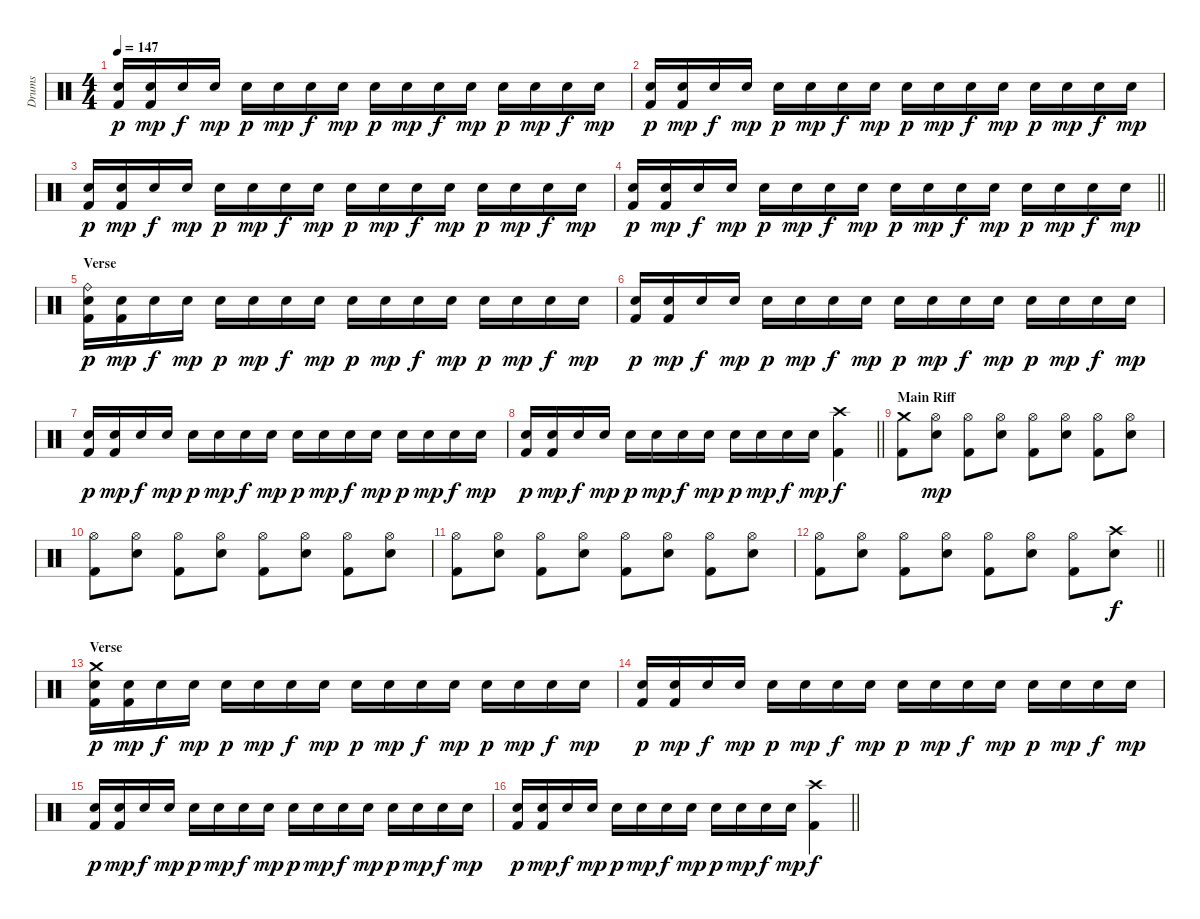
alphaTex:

\track ("Drums" "Drums") {instrument percussion}
\staff {score}
\articulation defaults
\ts (4 4)
\tempo 147
\clef neutral
\ks c
("Snare (hit) 2" "Kick (hit) 2").16{dy p} ("Snare (hit) 2" "Kick (hit) 2").16{dy mp} "Snare (hit) 2".16{dy f} "Snare (hit) 2".16{dy mp} "Snare (hit) 2".16{dy p} "Snare (hit) 2".16{dy mp} "Snare (hit) 2".16{dy f} "Snare (hit) 2".16{dy mp} "Snare (hit) 2".16{dy p} "Snare (hit) 2".16{dy mp} "Snare (hit) 2".16{dy f} "Snare (hit) 2".16{dy mp} "Snare (hit) 2".16{dy p} "Snare (hit) 2".16{dy mp} "Snare (hit) 2".16{dy f} "Snare (hit) 2".16{dy mp} |
("Snare (hit) 2" "Kick (hit) 2").16{dy p} ("Snare (hit) 2" "Kick (hit) 2").16{dy mp} "Snare (hit) 2".16{dy f} "Snare (hit) 2".16{dy mp} "Snare (hit) 2".16{dy p} "Snare (hit) 2".16{dy mp} "Snare (hit) 2".16{dy f} "Snare (hit) 2".16{dy mp} "Snare (hit) 2".16{dy p} "Snare (hit) 2".16{dy mp} "Snare (hit) 2".16{dy f} "Snare (hit) 2".16{dy mp} "Snare (hit) 2".16{dy p} "Snare (hit) 2".16{dy mp} "Snare (hit) 2".16{dy f} "Snare (hit) 2".16{dy mp} |
("Snare (hit) 2" "Kick (hit) 2").16{dy p} ("Snare (hit) 2" "Kick (hit) 2").16{dy mp} "Snare (hit) 2".16{dy f} "Snare (hit) 2".16{dy mp} "Snare (hit) 2".16{dy p} "Snare (hit) 2".16{dy mp} "Snare (hit) 2".16{dy f} "Snare (hit) 2".16{dy mp} "Snare (hit) 2".16{dy p} "Snare (hit) 2".16{dy mp} "Snare (hit) 2".16{dy f} "Snare (hit) 2".16{dy mp} "Snare (hit) 2".16{dy p} "Snare (hit) 2".16{dy mp} "Snare (hit) 2".16{dy f} "Snare (hit) 2".16{dy mp} |
\barLineRight lightlight
("Snare (hit) 2" "Kick (hit) 2").16{dy p} ("Snare (hit) 2" "Kick (hit) 2").16{dy mp} "Snare (hit) 2".16{dy f} "Snare (hit) 2".16{dy mp} "Snare (hit) 2".16{dy p} "Snare (hit) 2".16{dy mp} "Snare (hit) 2".16{dy f} "Snare (hit) 2".16{dy mp} "Snare (hit) 2".16{dy p} "Snare (hit) 2".16{dy mp} "Snare (hit) 2".16{dy f} "Snare (hit) 2".16{dy mp} "Snare (hit) 2".16{dy p} "Snare (hit) 2".16{dy mp} "Snare (hit) 2".16{dy f} "Snare (hit) 2".16{dy mp} |
\section ("" "Verse")
("Ride (bell)" "Snare (hit) 2" "Kick (hit) 2").16{dy p} ("Snare (hit) 2" "Kick (hit) 2").16{dy mp} "Snare (hit) 2".16{dy f} "Snare (hit) 2".16{dy mp} "Snare (hit) 2".16{dy p} "Snare (hit) 2".16{dy mp} "Snare (hit) 2".16{dy f} "Snare (hit) 2".16{dy mp} "Snare (hit) 2".16{dy p} "Snare (hit) 2".16{dy mp} "Snare (hit) 2".16{dy f} "Snare (hit) 2".16{dy mp} "Snare (hit) 2".16{dy p} "Snare (hit) 2".16{dy mp} "Snare (hit) 2".16{dy f} "Snare (hit) 2".16{dy mp} |
("Snare (hit) 2" "Kick (hit) 2").16{dy p} ("Snare (hit) 2" "Kick (hit) 2").16{dy mp} "Snare (hit) 2".16{dy f} "Snare (hit) 2".16{dy mp} "Snare (hit) 2".16{dy p} "Snare (hit) 2".16{dy mp} "Snare (hit) 2".16{dy f} "Snare (hit) 2".16{dy mp} "Snare (hit) 2".16{dy p} "Snare (hit) 2".16{dy mp} "Snare (hit) 2".16{dy f} "Snare (hit) 2".16{dy mp} "Snare (hit) 2".16{dy p} "Snare (hit) 2".16{dy mp} "Snare (hit) 2".16{dy f} "Snare (hit) 2".16{dy mp} |
("Snare (hit) 2" "Kick (hit) 2").16{dy p} ("Snare (hit) 2" "Kick (hit) 2").16{dy mp} "Snare (hit) 2".16{dy f} "Snare (hit) 2".16{dy mp} "Snare (hit) 2".16{dy p} "Snare (hit) 2".16{dy mp} "Snare (hit) 2".16{dy f} "Snare (hit) 2".16{dy mp} "Snare (hit) 2".16{dy p} "Snare (hit) 2".16{dy mp} "Snare (hit) 2".16{dy f} "Snare (hit) 2".16{dy mp} "Snare (hit) 2".16{dy p} "Snare (hit) 2".16{dy mp} "Snare (hit) 2".16{dy f} "Snare (hit) 2".16{dy mp} |
\barLineRight lightlight
("Snare (hit) 2" "Kick (hit) 2").16{dy p} ("Snare (hit) 2" "Kick (hit) 2").16{dy mp} "Snare (hit) 2".16{dy f} "Snare (hit) 2".16{dy mp} "Snare (hit) 2".16{dy p} "Snare (hit) 2".16{dy mp} "Snare (hit) 2".16{dy f} "Snare (hit) 2".16{dy mp} "Snare (hit) 2".16{dy p} "Snare (hit) 2".16{dy mp} "Snare (hit) 2".16{dy f} "Snare (hit) 2".16{dy mp} ("Crash high (hit)" "Kick (hit) 2").4{dy f} |
\section ("" "Main Riff")
("Crash medium (hit)" "Kick (hit) 2").8 ("Hi-Hat (open)" "Snare (hit) 2").8{dy mp} ("Hi-Hat (open)" "Kick (hit) 2").8 ("Hi-Hat (open)" "Snare (hit) 2").8 ("Hi-Hat (open)" "Kick (hit) 2").8 ("Hi-Hat (open)" "Snare (hit) 2").8 ("Hi-Hat (open)" "Kick (hit) 2").8 ("Hi-Hat (open)" "Snare (hit) 2").8 |
("Hi-Hat (open)" "Kick (hit) 2").8 ("Hi-Hat (open)" "Snare (hit) 2").8 ("Hi-Hat (open)" "Kick (hit) 2").8 ("Hi-Hat (open)" "Snare (hit) 2").8 ("Hi-Hat (open)" "Kick (hit) 2").8 ("Hi-Hat (open)" "Snare (hit) 2").8 ("Hi-Hat (open)" "Kick (hit) 2").8 ("Hi-Hat (open)" "Snare (hit) 2").8 |
("Hi-Hat (open)" "Kick (hit) 2").8 ("Hi-Hat (open)" "Snare (hit) 2").8 ("Hi-Hat (open)" "Kick (hit) 2").8 ("Hi-Hat (open)" "Snare (hit) 2").8 ("Hi-Hat (open)" "Kick (hit) 2").8 ("Hi-Hat (open)" "Snare (hit) 2").8 ("Hi-Hat (open)" "Kick (hit) 2").8 ("Hi-Hat (open)" "Snare (hit) 2").8 |
\barLineRight lightlight
("Hi-Hat (open)" "Kick (hit) 2").8 ("Hi-Hat (open)" "Snare (hit) 2").8 ("Hi-Hat (open)" "Kick (hit) 2").8 ("Hi-Hat (open)" "Snare (hit) 2").8 ("Hi-Hat (open)" "Kick (hit) 2").8 ("Hi-Hat (open)" "Snare (hit) 2").8 ("Hi-Hat (open)" "Kick (hit) 2").8 ("Crash high (hit)" "Snare (hit) 2").8{dy f} |
\section ("" "Verse")
("Crash medium (hit)" "Snare (hit) 2" "Kick (hit) 2").16{dy p} ("Snare (hit) 2" "Kick (hit) 2").16{dy mp} "Snare (hit) 2".16{dy f} "Snare (hit) 2".16{dy mp} "Snare (hit) 2".16{dy p} "Snare (hit) 2".16{dy mp} "Snare (hit) 2".16{dy f} "Snare (hit) 2".16{dy mp} "Snare (hit) 2".16{dy p} "Snare (hit) 2".16{dy mp} "Snare (hit) 2".16{dy f} "Snare (hit) 2".16{dy mp} "Snare (hit) 2".16{dy p} "Snare (hit) 2".16{dy mp} "Snare (hit) 2".16{dy f} "Snare (hit) 2".16{dy mp} |
("Snare (hit) 2" "Kick (hit) 2").16{dy p} ("Snare (hit) 2" "Kick (hit) 2").16{dy mp} "Snare (hit) 2".16{dy f} "Snare (hit) 2".16{dy mp} "Snare (hit) 2".16{dy p} "Snare (hit) 2".16{dy mp} "Snare (hit) 2".16{dy f} "Snare (hit) 2".16{dy mp} "Snare (hit) 2".16{dy p} "Snare (hit) 2".16{dy mp} "Snare (hit) 2".16{dy f} "Snare (hit) 2".16{dy mp} "Snare (hit) 2".16{dy p} "Snare (hit) 2".16{dy mp} "Snare (hit) 2".16{dy f} "Snare (hit) 2".16{dy mp} |
("Snare (hit) 2" "Kick (hit) 2").16{dy p} ("Snare (hit) 2" "Kick (hit) 2").16{dy mp} "Snare (hit) 2".16{dy f} "Snare (hit) 2".16{dy mp} "Snare (hit) 2".16{dy p} "Snare (hit) 2".16{dy mp} "Snare (hit) 2".16{dy f} "Snare (hit) 2".16{dy mp} "Snare (hit) 2".16{dy p} "Snare (hit) 2".16{dy mp} "Snare (hit) 2".16{dy f} "Snare (hit) 2".16{dy mp} "Snare (hit) 2".16{dy p} "Snare (hit) 2".16{dy mp} "Snare (hit) 2".16{dy f} "Snare (hit) 2".16{dy mp} |
\barLineRight lightlight
("Snare (hit) 2" "Kick (hit) 2").16{dy p} ("Snare (hit) 2" "Kick (hit) 2").16{dy mp} "Snare (hit) 2".16{dy f} "Snare (hit) 2".16{dy mp} "Snare (hit) 2".16{dy p} "Snare (hit) 2".16{dy mp} "Snare (hit) 2".16{dy f} "Snare (hit) 2".16{dy mp} "Snare (hit) 2".16{dy p} "Snare (hit) 2".16{dy mp} "Snare (hit) 2".16{dy f} "Snare (hit) 2".16{dy mp} ("Crash high (hit)" "Kick (hit) 2").4{dy f}
